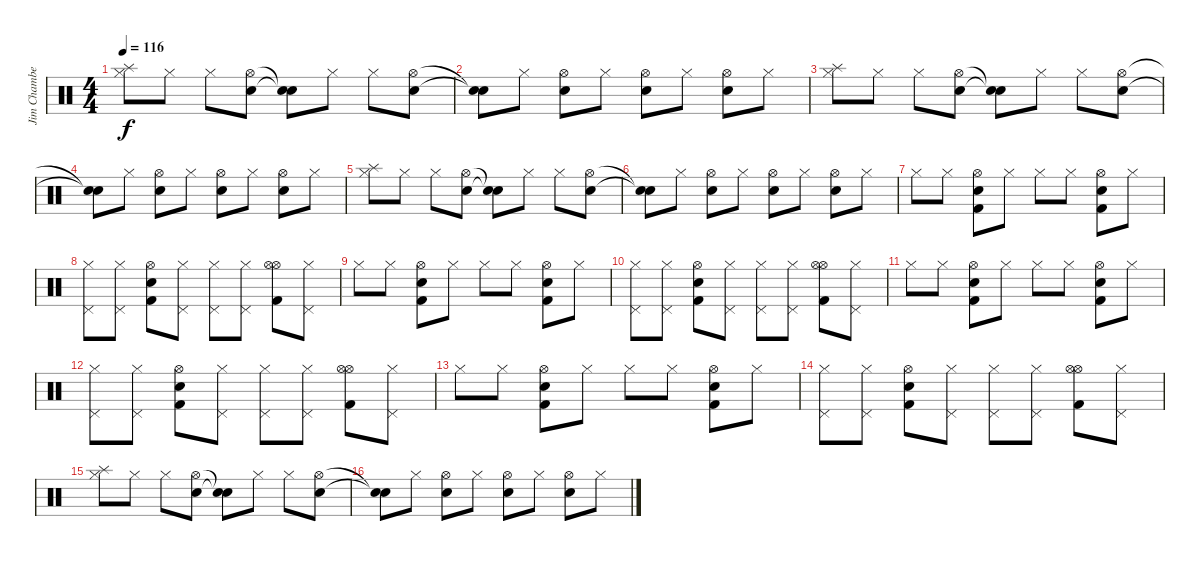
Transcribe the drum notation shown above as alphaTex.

\track ("Jim Chamberlin" "Jim Chambe") {instrument percussion}
\staff {score}
\articulation defaults
\ts (4 4)
\tempo 116
\clef neutral
\ks c
("Splash (hit)" "Hi-Hat (closed)").8{dy f} "Hi-Hat (closed)".8 "Hi-Hat (closed)".8 ("Snare (hit) 2" "Hi-Hat (open)").8 ("Snare (hit)"{t} "Snare (hit)"{t}).8 "Hi-Hat (closed)".8 "Hi-Hat (closed)".8 ("Snare (hit) 2" "Hi-Hat (open)").8 |
("Snare (hit)"{t} "Snare (hit)"{t}).8 "Hi-Hat (closed)".8 ("Snare (hit) 2" "Hi-Hat (open)").8 "Hi-Hat (closed)".8 ("Snare (hit) 2" "Hi-Hat (open)").8 "Hi-Hat (closed)".8 ("Snare (hit) 2" "Hi-Hat (open)").8 "Hi-Hat (closed)".8 |
("Splash (hit)" "Hi-Hat (closed)").8 "Hi-Hat (closed)".8 "Hi-Hat (closed)".8 ("Snare (hit) 2" "Hi-Hat (open)").8 ("Snare (hit)"{t} "Snare (hit)"{t}).8 "Hi-Hat (closed)".8 "Hi-Hat (closed)".8 ("Snare (hit) 2" "Hi-Hat (open)").8 |
("Snare (hit)"{t} "Snare (hit)"{t}).8 "Hi-Hat (closed)".8 ("Snare (hit) 2" "Hi-Hat (open)").8 "Hi-Hat (closed)".8 ("Snare (hit) 2" "Hi-Hat (open)").8 "Hi-Hat (closed)".8 ("Snare (hit) 2" "Hi-Hat (open)").8 "Hi-Hat (closed)".8 |
("Splash (hit)" "Hi-Hat (closed)").8 "Hi-Hat (closed)".8 "Hi-Hat (closed)".8 ("Snare (hit) 2" "Hi-Hat (open)").8 ("Snare (hit)"{t} "Snare (hit)"{t}).8 "Hi-Hat (closed)".8 "Hi-Hat (closed)".8 ("Snare (hit) 2" "Hi-Hat (open)").8 |
("Snare (hit)"{t} "Snare (hit)"{t}).8 "Hi-Hat (closed)".8 ("Snare (hit) 2" "Hi-Hat (open)").8 "Hi-Hat (closed)".8 ("Snare (hit) 2" "Hi-Hat (open)").8 "Hi-Hat (closed)".8 ("Snare (hit) 2" "Hi-Hat (open)").8 "Hi-Hat (closed)".8 |
"Hi-Hat (closed)".8 "Hi-Hat (closed)".8 ("Snare (hit) 2" "Hi-Hat (open)" "Kick (hit) 2").8 "Hi-Hat (closed)".8 "Hi-Hat (closed)".8 "Hi-Hat (closed)".8 ("Snare (hit) 2" "Hi-Hat (open)" "Kick (hit) 2").8 "Hi-Hat (closed)".8 |
("Pedal Hi-Hat (hit)" "Hi-Hat (closed)").8 ("Pedal Hi-Hat (hit)" "Hi-Hat (closed)").8 ("Snare (hit) 2" "Hi-Hat (open)" "Kick (hit) 2").8 ("Pedal Hi-Hat (hit)" "Hi-Hat (closed)").8 ("Pedal Hi-Hat (hit)" "Hi-Hat (closed)").8 ("Pedal Hi-Hat (hit)" "Hi-Hat (closed)").8 ("Hi-Hat (open)" "Hi-Hat (open)" "Kick (hit) 2").8 ("Pedal Hi-Hat (hit)" "Hi-Hat (closed)").8 |
"Hi-Hat (closed)".8 "Hi-Hat (closed)".8 ("Snare (hit) 2" "Hi-Hat (open)" "Kick (hit) 2").8 "Hi-Hat (closed)".8 "Hi-Hat (closed)".8 "Hi-Hat (closed)".8 ("Snare (hit) 2" "Hi-Hat (open)" "Kick (hit) 2").8 "Hi-Hat (closed)".8 |
("Pedal Hi-Hat (hit)" "Hi-Hat (closed)").8 ("Pedal Hi-Hat (hit)" "Hi-Hat (closed)").8 ("Snare (hit) 2" "Hi-Hat (open)" "Kick (hit) 2").8 ("Pedal Hi-Hat (hit)" "Hi-Hat (closed)").8 ("Pedal Hi-Hat (hit)" "Hi-Hat (closed)").8 ("Pedal Hi-Hat (hit)" "Hi-Hat (closed)").8 ("Hi-Hat (open)" "Hi-Hat (open)" "Kick (hit) 2").8 ("Pedal Hi-Hat (hit)" "Hi-Hat (closed)").8 |
"Hi-Hat (closed)".8 "Hi-Hat (closed)".8 ("Snare (hit) 2" "Hi-Hat (open)" "Kick (hit) 2").8 "Hi-Hat (closed)".8 "Hi-Hat (closed)".8 "Hi-Hat (closed)".8 ("Snare (hit) 2" "Hi-Hat (open)" "Kick (hit) 2").8 "Hi-Hat (closed)".8 |
("Pedal Hi-Hat (hit)" "Hi-Hat (closed)").8 ("Pedal Hi-Hat (hit)" "Hi-Hat (closed)").8 ("Snare (hit) 2" "Hi-Hat (open)" "Kick (hit) 2").8 ("Pedal Hi-Hat (hit)" "Hi-Hat (closed)").8 ("Pedal Hi-Hat (hit)" "Hi-Hat (closed)").8 ("Pedal Hi-Hat (hit)" "Hi-Hat (closed)").8 ("Hi-Hat (open)" "Hi-Hat (open)" "Kick (hit) 2").8 ("Pedal Hi-Hat (hit)" "Hi-Hat (closed)").8 |
"Hi-Hat (closed)".8 "Hi-Hat (closed)".8 ("Snare (hit) 2" "Hi-Hat (open)" "Kick (hit) 2").8 "Hi-Hat (closed)".8 "Hi-Hat (closed)".8 "Hi-Hat (closed)".8 ("Snare (hit) 2" "Hi-Hat (open)" "Kick (hit) 2").8 "Hi-Hat (closed)".8 |
("Pedal Hi-Hat (hit)" "Hi-Hat (closed)").8 ("Pedal Hi-Hat (hit)" "Hi-Hat (closed)").8 ("Snare (hit) 2" "Hi-Hat (open)" "Kick (hit) 2").8 ("Pedal Hi-Hat (hit)" "Hi-Hat (closed)").8 ("Pedal Hi-Hat (hit)" "Hi-Hat (closed)").8 ("Pedal Hi-Hat (hit)" "Hi-Hat (closed)").8 ("Hi-Hat (open)" "Hi-Hat (open)" "Kick (hit) 2").8 ("Pedal Hi-Hat (hit)" "Hi-Hat (closed)").8 |
("Splash (hit)" "Hi-Hat (closed)").8 "Hi-Hat (closed)".8 "Hi-Hat (closed)".8 ("Snare (hit) 2" "Hi-Hat (open)").8 ("Snare (hit)"{t} "Snare (hit)"{t}).8 "Hi-Hat (closed)".8 "Hi-Hat (closed)".8 ("Snare (hit) 2" "Hi-Hat (open)").8 |
("Snare (hit)"{t} "Snare (hit)"{t}).8 "Hi-Hat (closed)".8 ("Snare (hit) 2" "Hi-Hat (open)").8 "Hi-Hat (closed)".8 ("Snare (hit) 2" "Hi-Hat (open)").8 "Hi-Hat (closed)".8 ("Snare (hit) 2" "Hi-Hat (open)").8 "Hi-Hat (closed)".8
